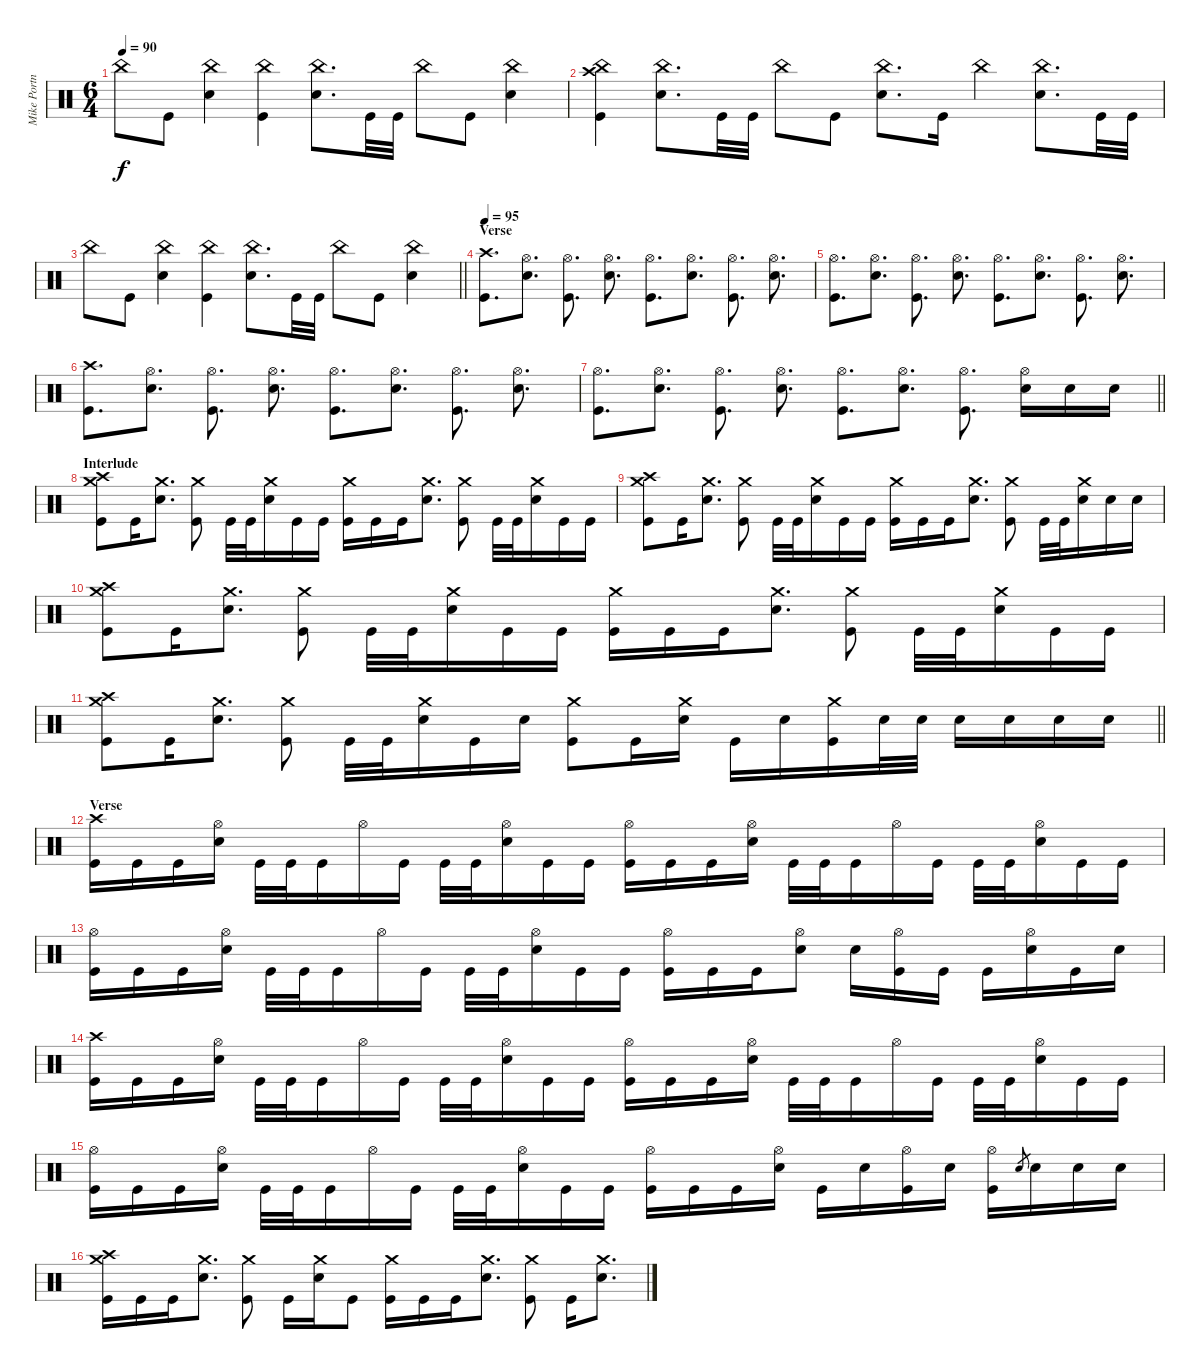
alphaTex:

\track ("Mike Portnoy" "Mike Portn") {instrument percussion}
\staff {score}
\articulation defaults
\ts (6 4)
\tempo 90
\clef neutral
\ks c "China (hit)".8{dy f} "Kick (hit)".8
("China (hit)" "Electric Snare (hit)").4 ("China (hit)" "Kick (hit)").4 ("China (hit)" "Electric Snare (hit)").8{d} "Kick (hit)".32 "Kick (hit)".32 "China (hit)".8 "Kick (hit)".8 ("China (hit)" "Electric Snare (hit)").4 |
("Crash high (hit)" "China (hit)" "Kick (hit)").4 ("China (hit)" "Electric Snare (hit)").8{d} "Kick (hit)".32 "Kick (hit)".32 "China (hit)".8 "Kick (hit)".8 ("China (hit)" "Electric Snare (hit)").8{d} "Kick (hit)".16 "China (hit)".4 ("China (hit)" "Electric Snare (hit)").8{d} "Kick (hit)".32 "Kick (hit)".32 |
\barLineRight lightlight "China (hit)".8 "Kick (hit)".8
("China (hit)" "Electric Snare (hit)").4 ("China (hit)" "Kick (hit)").4 ("China (hit)" "Electric Snare (hit)").8{d} "Kick (hit)".32 "Kick (hit)".32 "China (hit)".8 "Kick (hit)".8 ("China (hit)" "Electric Snare (hit)").4 |
\section ("" "Verse")
\tempo 95
("Crash high (hit)" "Kick (hit)").8{d} ("Hi-Hat (open)" "Electric Snare (hit)").8{d} ("Hi-Hat (open)" "Kick (hit)").8{d} ("Hi-Hat (open)" "Electric Snare (hit)").8{d} ("Hi-Hat (open)" "Kick (hit)").8{d} ("Hi-Hat (open)" "Electric Snare (hit)").8{d} ("Hi-Hat (open)" "Kick (hit)").8{d} ("Hi-Hat (open)" "Electric Snare (hit)").8{d} |
("Hi-Hat (open)" "Kick (hit)").8{d} ("Hi-Hat (open)" "Electric Snare (hit)").8{d} ("Hi-Hat (open)" "Kick (hit)").8{d} ("Hi-Hat (open)" "Electric Snare (hit)").8{d} ("Hi-Hat (open)" "Kick (hit)").8{d} ("Hi-Hat (open)" "Electric Snare (hit)").8{d} ("Hi-Hat (open)" "Kick (hit)").8{d} ("Hi-Hat (open)" "Electric Snare (hit)").8{d} |
("Crash high (hit)" "Kick (hit)").8{d} ("Hi-Hat (open)" "Electric Snare (hit)").8{d} ("Hi-Hat (open)" "Kick (hit)").8{d} ("Hi-Hat (open)" "Electric Snare (hit)").8{d} ("Hi-Hat (open)" "Kick (hit)").8{d} ("Hi-Hat (open)" "Electric Snare (hit)").8{d} ("Hi-Hat (open)" "Kick (hit)").8{d} ("Hi-Hat (open)" "Electric Snare (hit)").8{d} |
\barLineRight lightlight
("Hi-Hat (open)" "Kick (hit)").8{d} ("Hi-Hat (open)" "Electric Snare (hit)").8{d} ("Hi-Hat (open)" "Kick (hit)").8{d} ("Hi-Hat (open)" "Electric Snare (hit)").8{d} ("Hi-Hat (open)" "Kick (hit)").8{d} ("Hi-Hat (open)" "Electric Snare (hit)").8{d} ("Hi-Hat (open)" "Kick (hit)").8{d} ("Hi-Hat (open)" "Electric Snare (hit)").16 "Electric Snare (hit)".16 "Electric Snare (hit)".16 |
\section ("" "Interlude")
("Crash high (hit)" "Crash medium (hit)" "Kick (hit)").8 "Kick (hit)".16 ("Crash medium (hit)" "Electric Snare (hit)").8{d} ("Crash medium (hit)" "Kick (hit)").8 "Kick (hit)".32 "Kick (hit)".32 ("Crash medium (hit)" "Electric Snare (hit)").16 "Kick (hit)".16 "Kick (hit)".16 ("Crash medium (hit)" "Kick (hit)").16 "Kick (hit)".16 "Kick (hit)".16 ("Crash medium (hit)" "Electric Snare (hit)").8{d} ("Crash medium (hit)" "Kick (hit)").8 "Kick (hit)".32 "Kick (hit)".32 ("Crash medium (hit)" "Electric Snare (hit)").16 "Kick (hit)".16 "Kick (hit)".16 |
("Crash high (hit)" "Crash medium (hit)" "Kick (hit)").8 "Kick (hit)".16 ("Crash medium (hit)" "Electric Snare (hit)").8{d} ("Crash medium (hit)" "Kick (hit)").8 "Kick (hit)".32 "Kick (hit)".32 ("Crash medium (hit)" "Electric Snare (hit)").16 "Kick (hit)".16 "Kick (hit)".16 ("Crash medium (hit)" "Kick (hit)").16 "Kick (hit)".16 "Kick (hit)".16 ("Crash medium (hit)" "Electric Snare (hit)").8{d} ("Crash medium (hit)" "Kick (hit)").8 "Kick (hit)".32 "Kick (hit)".32 ("Crash medium (hit)" "Electric Snare (hit)").16 "Electric Snare (hit)".16 "Electric Snare (hit)".16 |
("Crash high (hit)" "Crash medium (hit)" "Kick (hit)").8 "Kick (hit)".16 ("Crash medium (hit)" "Electric Snare (hit)").8{d} ("Crash medium (hit)" "Kick (hit)").8 "Kick (hit)".32 "Kick (hit)".32 ("Crash medium (hit)" "Electric Snare (hit)").16 "Kick (hit)".16 "Kick (hit)".16 ("Crash medium (hit)" "Kick (hit)").16 "Kick (hit)".16 "Kick (hit)".16 ("Crash medium (hit)" "Electric Snare (hit)").8{d} ("Crash medium (hit)" "Kick (hit)").8 "Kick (hit)".32 "Kick (hit)".32 ("Crash medium (hit)" "Electric Snare (hit)").16 "Kick (hit)".16 "Kick (hit)".16 |
\barLineRight lightlight
("Crash high (hit)" "Crash medium (hit)" "Kick (hit)").8 "Kick (hit)".16 ("Crash medium (hit)" "Electric Snare (hit)").8{d} ("Crash medium (hit)" "Kick (hit)").8 "Kick (hit)".32 "Kick (hit)".32 ("Crash medium (hit)" "Electric Snare (hit)").16 "Kick (hit)".16 "Electric Snare (hit)".16 ("Crash medium (hit)" "Kick (hit)").8 "Kick (hit)".16 ("Crash medium (hit)" "Electric Snare (hit)").16 "Kick (hit)".16 "Electric Snare (hit)".16 ("Crash medium (hit)" "Kick (hit)").16 "Electric Snare (hit)".32 "Electric Snare (hit)".32 "Electric Snare (hit)".16 "Electric Snare (hit)".16 "Electric Snare (hit)".16 "Electric Snare (hit)".16 |
\section ("" "Verse")
("Crash high (hit)" "Kick (hit)").16 "Kick (hit)".16 "Kick (hit)".16 ("Hi-Hat (open)" "Electric Snare (hit)").16 "Kick (hit)".32 "Kick (hit)".32 "Kick (hit)".16 "Hi-Hat (open)".16 "Kick (hit)".16 "Kick (hit)".32 "Kick (hit)".32 ("Hi-Hat (open)" "Electric Snare (hit)").16 "Kick (hit)".16 "Kick (hit)".16 ("Hi-Hat (open)" "Kick (hit)").16 "Kick (hit)".16 "Kick (hit)".16 ("Hi-Hat (open)" "Electric Snare (hit)").16 "Kick (hit)".32 "Kick (hit)".32 "Kick (hit)".16 "Hi-Hat (open)".16 "Kick (hit)".16 "Kick (hit)".32 "Kick (hit)".32 ("Hi-Hat (open)" "Electric Snare (hit)").16 "Kick (hit)".16 "Kick (hit)".16 |
("Hi-Hat (open)" "Kick (hit)").16 "Kick (hit)".16 "Kick (hit)".16 ("Hi-Hat (open)" "Electric Snare (hit)").16 "Kick (hit)".32 "Kick (hit)".32 "Kick (hit)".16 "Hi-Hat (open)".16 "Kick (hit)".16 "Kick (hit)".32 "Kick (hit)".32 ("Hi-Hat (open)" "Electric Snare (hit)").16 "Kick (hit)".16 "Kick (hit)".16 ("Hi-Hat (open)" "Kick (hit)").16 "Kick (hit)".16 "Kick (hit)".16 ("Hi-Hat (open)" "Electric Snare (hit)").8 "Electric Snare (hit)".16 ("Hi-Hat (open)" "Kick (hit)").16 "Kick (hit)".16 "Kick (hit)".16 ("Hi-Hat (open)" "Electric Snare (hit)").16 "Kick (hit)".16 "Electric Snare (hit)".16 |
("Crash high (hit)" "Kick (hit)").16 "Kick (hit)".16 "Kick (hit)".16 ("Hi-Hat (open)" "Electric Snare (hit)").16 "Kick (hit)".32 "Kick (hit)".32 "Kick (hit)".16 "Hi-Hat (open)".16 "Kick (hit)".16 "Kick (hit)".32 "Kick (hit)".32 ("Hi-Hat (open)" "Electric Snare (hit)").16 "Kick (hit)".16 "Kick (hit)".16 ("Hi-Hat (open)" "Kick (hit)").16 "Kick (hit)".16 "Kick (hit)".16 ("Hi-Hat (open)" "Electric Snare (hit)").16 "Kick (hit)".32 "Kick (hit)".32 "Kick (hit)".16 "Hi-Hat (open)".16 "Kick (hit)".16 "Kick (hit)".32 "Kick (hit)".32 ("Hi-Hat (open)" "Electric Snare (hit)").16 "Kick (hit)".16 "Kick (hit)".16 |
("Hi-Hat (open)" "Kick (hit)").16 "Kick (hit)".16 "Kick (hit)".16 ("Hi-Hat (open)" "Electric Snare (hit)").16 "Kick (hit)".32 "Kick (hit)".32 "Kick (hit)".16 "Hi-Hat (open)".16 "Kick (hit)".16 "Kick (hit)".32 "Kick (hit)".32 ("Hi-Hat (open)" "Electric Snare (hit)").16 "Kick (hit)".16 "Kick (hit)".16 ("Hi-Hat (open)" "Kick (hit)").16 "Kick (hit)".16 "Kick (hit)".16 ("Hi-Hat (open)" "Electric Snare (hit)").16 "Kick (hit)".16 "Electric Snare (hit)".16 ("Hi-Hat (open)" "Kick (hit)").16 "Electric Snare (hit)".16 ("Hi-Hat (open)" "Kick (hit)").16 "Electric Snare (hit)".8{gr} "Electric Snare (hit)".16 "Electric Snare (hit)".16 "Electric Snare (hit)".16 |
("Crash high (hit)" "Crash medium (hit)" "Kick (hit)").16 "Kick (hit)".16 "Kick (hit)".16 ("Crash medium (hit)" "Electric Snare (hit)").8{d} ("Crash medium (hit)" "Kick (hit)").8 "Kick (hit)".16 ("Crash medium (hit)" "Electric Snare (hit)").16 "Kick (hit)".8 ("Crash medium (hit)" "Kick (hit)").16 "Kick (hit)".16 "Kick (hit)".16 ("Crash medium (hit)" "Electric Snare (hit)").8{d} ("Crash medium (hit)" "Kick (hit)").8 "Kick (hit)".16 ("Crash medium (hit)" "Electric Snare (hit)").8{d}
